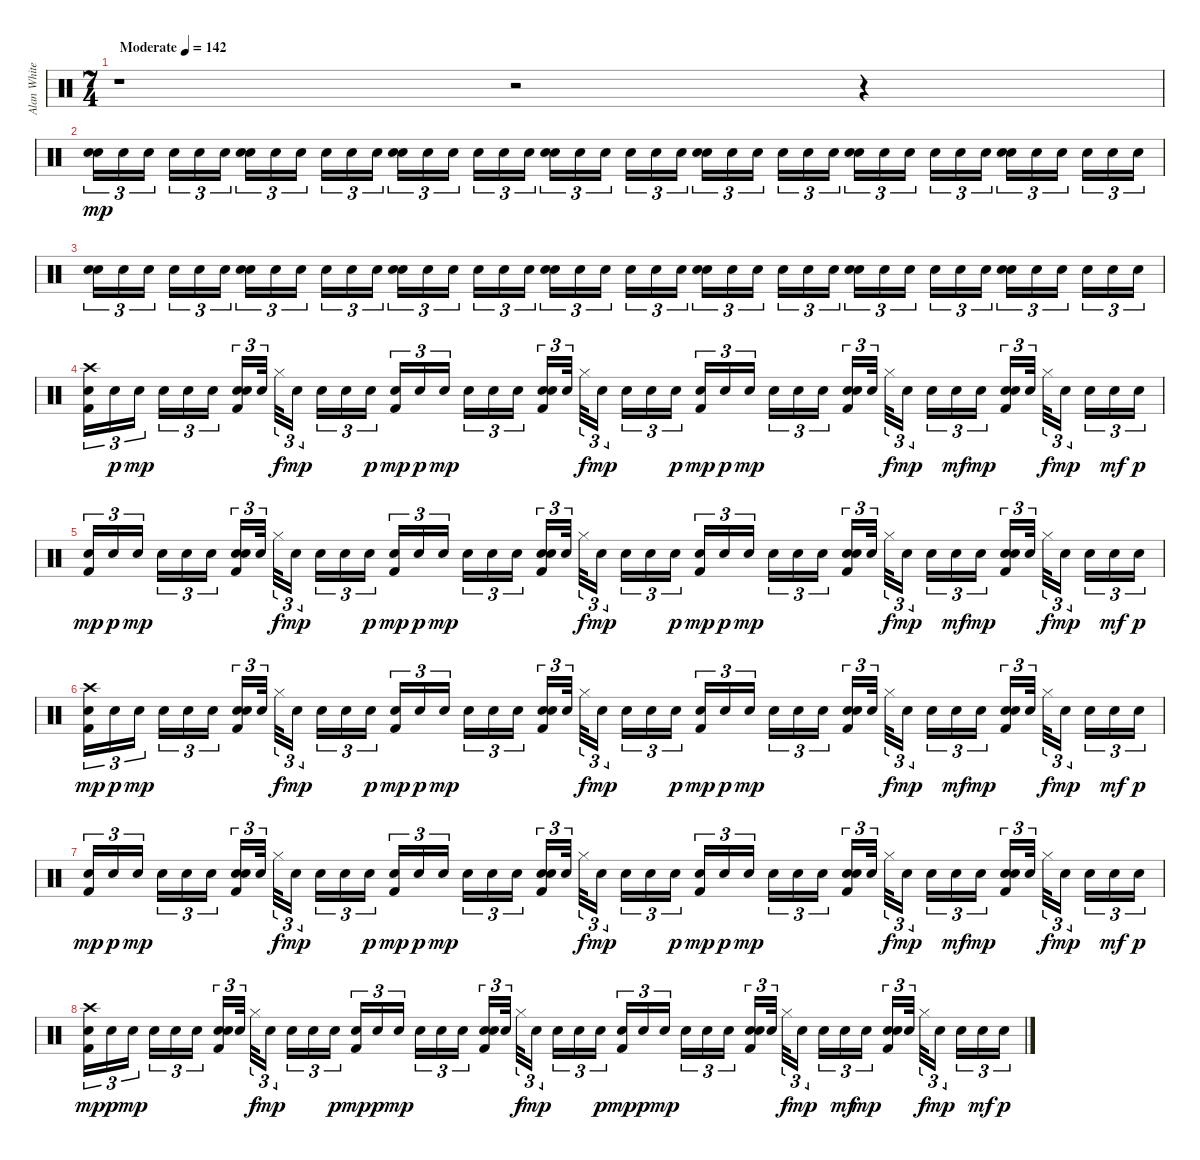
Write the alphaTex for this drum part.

\track ("Alan White" "Alan White") {instrument percussion}
\staff {score}
\articulation defaults
\ts (7 4)
\tempo (142 "Moderate")
\clef neutral
\ks c
r.1{dy mp} r.2 r.4 |
("Snare (hit) 2" "Electric Snare (hit)").16{tu (3 2)} "Electric Snare (hit)".16{tu (3 2)} "Electric Snare (hit)".16{tu (3 2) beam splitsecondary} "Electric Snare (hit)".16{tu (3 2)} "Electric Snare (hit)".16{tu (3 2)} "Electric Snare (hit)".16{tu (3 2)} ("Snare (hit) 2" "Electric Snare (hit)").16{tu (3 2)} "Electric Snare (hit)".16{tu (3 2)} "Electric Snare (hit)".16{tu (3 2) beam splitsecondary} "Electric Snare (hit)".16{tu (3 2)} "Electric Snare (hit)".16{tu (3 2)} "Electric Snare (hit)".16{tu (3 2)} ("Snare (hit) 2" "Electric Snare (hit)").16{tu (3 2)} "Electric Snare (hit)".16{tu (3 2)} "Electric Snare (hit)".16{tu (3 2) beam splitsecondary} "Electric Snare (hit)".16{tu (3 2)} "Electric Snare (hit)".16{tu (3 2)} "Electric Snare (hit)".16{tu (3 2)} ("Snare (hit) 2" "Electric Snare (hit)").16{tu (3 2)} "Electric Snare (hit)".16{tu (3 2)} "Electric Snare (hit)".16{tu (3 2) beam splitsecondary} "Electric Snare (hit)".16{tu (3 2)} "Electric Snare (hit)".16{tu (3 2)} "Electric Snare (hit)".16{tu (3 2)} ("Snare (hit) 2" "Electric Snare (hit)").16{tu (3 2)} "Electric Snare (hit)".16{tu (3 2)} "Electric Snare (hit)".16{tu (3 2) beam splitsecondary} "Electric Snare (hit)".16{tu (3 2)} "Electric Snare (hit)".16{tu (3 2)} "Electric Snare (hit)".16{tu (3 2)} ("Snare (hit) 2" "Electric Snare (hit)").16{tu (3 2)} "Electric Snare (hit)".16{tu (3 2)} "Electric Snare (hit)".16{tu (3 2) beam splitsecondary} "Electric Snare (hit)".16{tu (3 2)} "Electric Snare (hit)".16{tu (3 2)} "Electric Snare (hit)".16{tu (3 2)} ("Snare (hit) 2" "Electric Snare (hit)").16{tu (3 2)} "Electric Snare (hit)".16{tu (3 2)} "Electric Snare (hit)".16{tu (3 2) beam splitsecondary} "Electric Snare (hit)".16{tu (3 2)} "Electric Snare (hit)".16{tu (3 2)} "Electric Snare (hit)".16{tu (3 2)} |
("Snare (hit) 2" "Electric Snare (hit)").16{tu (3 2)} "Electric Snare (hit)".16{tu (3 2)} "Electric Snare (hit)".16{tu (3 2) beam splitsecondary} "Electric Snare (hit)".16{tu (3 2)} "Electric Snare (hit)".16{tu (3 2)} "Electric Snare (hit)".16{tu (3 2)} ("Snare (hit) 2" "Electric Snare (hit)").16{tu (3 2)} "Electric Snare (hit)".16{tu (3 2)} "Electric Snare (hit)".16{tu (3 2) beam splitsecondary} "Electric Snare (hit)".16{tu (3 2)} "Electric Snare (hit)".16{tu (3 2)} "Electric Snare (hit)".16{tu (3 2)} ("Snare (hit) 2" "Electric Snare (hit)").16{tu (3 2)} "Electric Snare (hit)".16{tu (3 2)} "Electric Snare (hit)".16{tu (3 2) beam splitsecondary} "Electric Snare (hit)".16{tu (3 2)} "Electric Snare (hit)".16{tu (3 2)} "Electric Snare (hit)".16{tu (3 2)} ("Snare (hit) 2" "Electric Snare (hit)").16{tu (3 2)} "Electric Snare (hit)".16{tu (3 2)} "Electric Snare (hit)".16{tu (3 2) beam splitsecondary} "Electric Snare (hit)".16{tu (3 2)} "Electric Snare (hit)".16{tu (3 2)} "Electric Snare (hit)".16{tu (3 2)} ("Snare (hit) 2" "Electric Snare (hit)").16{tu (3 2)} "Electric Snare (hit)".16{tu (3 2)} "Electric Snare (hit)".16{tu (3 2) beam splitsecondary} "Electric Snare (hit)".16{tu (3 2)} "Electric Snare (hit)".16{tu (3 2)} "Electric Snare (hit)".16{tu (3 2)} ("Snare (hit) 2" "Electric Snare (hit)").16{tu (3 2)} "Electric Snare (hit)".16{tu (3 2)} "Electric Snare (hit)".16{tu (3 2) beam splitsecondary} "Electric Snare (hit)".16{tu (3 2)} "Electric Snare (hit)".16{tu (3 2)} "Electric Snare (hit)".16{tu (3 2)} ("Snare (hit) 2" "Electric Snare (hit)").16{tu (3 2)} "Electric Snare (hit)".16{tu (3 2)} "Electric Snare (hit)".16{tu (3 2) beam splitsecondary} "Electric Snare (hit)".16{tu (3 2)} "Electric Snare (hit)".16{tu (3 2)} "Electric Snare (hit)".16{tu (3 2)} |
("Kick (hit) 2" "Electric Snare (hit)" "Crash high (hit)").16{tu (3 2)} "Electric Snare (hit)".16{tu (3 2) dy p} "Electric Snare (hit)".16{tu (3 2) dy mp beam splitsecondary} "Electric Snare (hit)".16{tu (3 2)} "Electric Snare (hit)".16{tu (3 2)} "Electric Snare (hit)".16{tu (3 2)} ("Snare (hit) 2" "Kick (hit) 2" "Electric Snare (hit)").16{tu (3 2)} "Electric Snare (hit)".32{tu (3 2) beam splitsecondary} "Hi-Hat (closed)".32{tu (3 2) dy f} "Electric Snare (hit)".16{tu (3 2) dy mp beam splitsecondary} "Electric Snare (hit)".16{tu (3 2)} "Electric Snare (hit)".16{tu (3 2)} "Electric Snare (hit)".16{tu (3 2) dy p} ("Kick (hit) 2" "Electric Snare (hit)").16{tu (3 2) dy mp} "Electric Snare (hit)".16{tu (3 2) dy p} "Electric Snare (hit)".16{tu (3 2) dy mp beam splitsecondary} "Electric Snare (hit)".16{tu (3 2)} "Electric Snare (hit)".16{tu (3 2)} "Electric Snare (hit)".16{tu (3 2)} ("Snare (hit) 2" "Kick (hit) 2" "Electric Snare (hit)").16{tu (3 2)} "Electric Snare (hit)".32{tu (3 2) beam splitsecondary} "Hi-Hat (closed)".32{tu (3 2) dy f} "Electric Snare (hit)".16{tu (3 2) dy mp beam splitsecondary} "Electric Snare (hit)".16{tu (3 2)} "Electric Snare (hit)".16{tu (3 2)} "Electric Snare (hit)".16{tu (3 2) dy p} ("Kick (hit) 2" "Electric Snare (hit)").16{tu (3 2) dy mp} "Electric Snare (hit)".16{tu (3 2) dy p} "Electric Snare (hit)".16{tu (3 2) dy mp beam splitsecondary} "Electric Snare (hit)".16{tu (3 2)} "Electric Snare (hit)".16{tu (3 2)} "Electric Snare (hit)".16{tu (3 2)} ("Snare (hit) 2" "Kick (hit) 2" "Electric Snare (hit)").16{tu (3 2)} "Electric Snare (hit)".32{tu (3 2) beam splitsecondary} "Hi-Hat (closed)".32{tu (3 2) dy f} "Electric Snare (hit)".16{tu (3 2) dy mp beam splitsecondary} "Electric Snare (hit)".16{tu (3 2)} "Electric Snare (hit)".16{tu (3 2) dy mf} "Electric Snare (hit)".16{tu (3 2) dy mp} ("Snare (hit) 2" "Kick (hit) 2" "Electric Snare (hit)").16{tu (3 2)} "Electric Snare (hit)".32{tu (3 2) beam splitsecondary} "Hi-Hat (closed)".32{tu (3 2) dy f} "Electric Snare (hit)".16{tu (3 2) dy mp beam splitsecondary} "Electric Snare (hit)".16{tu (3 2)} "Electric Snare (hit)".16{tu (3 2) dy mf} "Electric Snare (hit)".16{tu (3 2) dy p} |
("Electric Snare (hit)" "Kick (hit) 2").16{tu (3 2) dy mp} "Electric Snare (hit)".16{tu (3 2) dy p} "Electric Snare (hit)".16{tu (3 2) dy mp beam splitsecondary} "Electric Snare (hit)".16{tu (3 2)} "Electric Snare (hit)".16{tu (3 2)} "Electric Snare (hit)".16{tu (3 2)} ("Kick (hit) 2" "Electric Snare (hit)" "Snare (hit) 2").16{tu (3 2)} "Electric Snare (hit)".32{tu (3 2) beam splitsecondary} "Hi-Hat (closed)".32{tu (3 2) dy f} "Electric Snare (hit)".16{tu (3 2) dy mp beam splitsecondary} "Electric Snare (hit)".16{tu (3 2)} "Electric Snare (hit)".16{tu (3 2)} "Electric Snare (hit)".16{tu (3 2) dy p} ("Kick (hit) 2" "Electric Snare (hit)").16{tu (3 2) dy mp} "Electric Snare (hit)".16{tu (3 2) dy p} "Electric Snare (hit)".16{tu (3 2) dy mp beam splitsecondary} "Electric Snare (hit)".16{tu (3 2)} "Electric Snare (hit)".16{tu (3 2)} "Electric Snare (hit)".16{tu (3 2)} ("Kick (hit) 2" "Snare (hit) 2" "Electric Snare (hit)").16{tu (3 2)} "Electric Snare (hit)".32{tu (3 2) beam splitsecondary} "Hi-Hat (closed)".32{tu (3 2) dy f} "Electric Snare (hit)".16{tu (3 2) dy mp beam splitsecondary} "Electric Snare (hit)".16{tu (3 2)} "Electric Snare (hit)".16{tu (3 2)} "Electric Snare (hit)".16{tu (3 2) dy p} ("Kick (hit) 2" "Electric Snare (hit)").16{tu (3 2) dy mp} "Electric Snare (hit)".16{tu (3 2) dy p} "Electric Snare (hit)".16{tu (3 2) dy mp beam splitsecondary} "Electric Snare (hit)".16{tu (3 2)} "Electric Snare (hit)".16{tu (3 2)} "Electric Snare (hit)".16{tu (3 2)} ("Electric Snare (hit)" "Kick (hit) 2" "Snare (hit) 2").16{tu (3 2)} "Electric Snare (hit)".32{tu (3 2) beam splitsecondary} "Hi-Hat (closed)".32{tu (3 2) dy f} "Electric Snare (hit)".16{tu (3 2) dy mp beam splitsecondary} "Electric Snare (hit)".16{tu (3 2)} "Electric Snare (hit)".16{tu (3 2) dy mf} "Electric Snare (hit)".16{tu (3 2) dy mp} ("Kick (hit) 2" "Snare (hit) 2" "Electric Snare (hit)").16{tu (3 2)} "Electric Snare (hit)".32{tu (3 2) beam splitsecondary} "Hi-Hat (closed)".32{tu (3 2) dy f} "Electric Snare (hit)".16{tu (3 2) dy mp beam splitsecondary} "Electric Snare (hit)".16{tu (3 2)} "Electric Snare (hit)".16{tu (3 2) dy mf} "Electric Snare (hit)".16{tu (3 2) dy p} |
("Crash high (hit)" "Kick (hit) 2" "Electric Snare (hit)").16{tu (3 2) dy mp} "Electric Snare (hit)".16{tu (3 2) dy p} "Electric Snare (hit)".16{tu (3 2) dy mp beam splitsecondary} "Electric Snare (hit)".16{tu (3 2)} "Electric Snare (hit)".16{tu (3 2)} "Electric Snare (hit)".16{tu (3 2)} ("Kick (hit) 2" "Electric Snare (hit)" "Snare (hit) 2").16{tu (3 2)} "Electric Snare (hit)".32{tu (3 2) beam splitsecondary} "Hi-Hat (closed)".32{tu (3 2) dy f} "Electric Snare (hit)".16{tu (3 2) dy mp beam splitsecondary} "Electric Snare (hit)".16{tu (3 2)} "Electric Snare (hit)".16{tu (3 2)} "Electric Snare (hit)".16{tu (3 2) dy p} ("Electric Snare (hit)" "Kick (hit) 2").16{tu (3 2) dy mp} "Electric Snare (hit)".16{tu (3 2) dy p} "Electric Snare (hit)".16{tu (3 2) dy mp beam splitsecondary} "Electric Snare (hit)".16{tu (3 2)} "Electric Snare (hit)".16{tu (3 2)} "Electric Snare (hit)".16{tu (3 2)} ("Electric Snare (hit)" "Kick (hit) 2" "Snare (hit) 2").16{tu (3 2)} "Electric Snare (hit)".32{tu (3 2) beam splitsecondary} "Hi-Hat (closed)".32{tu (3 2) dy f} "Electric Snare (hit)".16{tu (3 2) dy mp beam splitsecondary} "Electric Snare (hit)".16{tu (3 2)} "Electric Snare (hit)".16{tu (3 2)} "Electric Snare (hit)".16{tu (3 2) dy p} ("Electric Snare (hit)" "Kick (hit) 2").16{tu (3 2) dy mp} "Electric Snare (hit)".16{tu (3 2) dy p} "Electric Snare (hit)".16{tu (3 2) dy mp beam splitsecondary} "Electric Snare (hit)".16{tu (3 2)} "Electric Snare (hit)".16{tu (3 2)} "Electric Snare (hit)".16{tu (3 2)} ("Kick (hit) 2" "Electric Snare (hit)" "Snare (hit) 2").16{tu (3 2)} "Electric Snare (hit)".32{tu (3 2) beam splitsecondary} "Hi-Hat (closed)".32{tu (3 2) dy f} "Electric Snare (hit)".16{tu (3 2) dy mp beam splitsecondary} "Electric Snare (hit)".16{tu (3 2)} "Electric Snare (hit)".16{tu (3 2) dy mf} "Electric Snare (hit)".16{tu (3 2) dy mp} ("Electric Snare (hit)" "Kick (hit) 2" "Snare (hit) 2").16{tu (3 2)} "Electric Snare (hit)".32{tu (3 2) beam splitsecondary} "Hi-Hat (closed)".32{tu (3 2) dy f} "Electric Snare (hit)".16{tu (3 2) dy mp beam splitsecondary} "Electric Snare (hit)".16{tu (3 2)} "Electric Snare (hit)".16{tu (3 2) dy mf} "Electric Snare (hit)".16{tu (3 2) dy p} |
("Electric Snare (hit)" "Kick (hit) 2").16{tu (3 2) dy mp} "Electric Snare (hit)".16{tu (3 2) dy p} "Electric Snare (hit)".16{tu (3 2) dy mp beam splitsecondary} "Electric Snare (hit)".16{tu (3 2)} "Electric Snare (hit)".16{tu (3 2)} "Electric Snare (hit)".16{tu (3 2)} ("Electric Snare (hit)" "Kick (hit) 2" "Snare (hit) 2").16{tu (3 2)} "Electric Snare (hit)".32{tu (3 2) beam splitsecondary} "Hi-Hat (closed)".32{tu (3 2) dy f} "Electric Snare (hit)".16{tu (3 2) dy mp beam splitsecondary} "Electric Snare (hit)".16{tu (3 2)} "Electric Snare (hit)".16{tu (3 2)} "Electric Snare (hit)".16{tu (3 2) dy p} ("Electric Snare (hit)" "Kick (hit) 2").16{tu (3 2) dy mp} "Electric Snare (hit)".16{tu (3 2) dy p} "Electric Snare (hit)".16{tu (3 2) dy mp beam splitsecondary} "Electric Snare (hit)".16{tu (3 2)} "Electric Snare (hit)".16{tu (3 2)} "Electric Snare (hit)".16{tu (3 2)} ("Electric Snare (hit)" "Kick (hit) 2" "Snare (hit) 2").16{tu (3 2)} "Electric Snare (hit)".32{tu (3 2) beam splitsecondary} "Hi-Hat (closed)".32{tu (3 2) dy f} "Electric Snare (hit)".16{tu (3 2) dy mp beam splitsecondary} "Electric Snare (hit)".16{tu (3 2)} "Electric Snare (hit)".16{tu (3 2)} "Electric Snare (hit)".16{tu (3 2) dy p} ("Electric Snare (hit)" "Kick (hit) 2").16{tu (3 2) dy mp} "Electric Snare (hit)".16{tu (3 2) dy p} "Electric Snare (hit)".16{tu (3 2) dy mp beam splitsecondary} "Electric Snare (hit)".16{tu (3 2)} "Electric Snare (hit)".16{tu (3 2)} "Electric Snare (hit)".16{tu (3 2)} ("Kick (hit) 2" "Electric Snare (hit)" "Snare (hit) 2").16{tu (3 2)} "Electric Snare (hit)".32{tu (3 2) beam splitsecondary} "Hi-Hat (closed)".32{tu (3 2) dy f} "Electric Snare (hit)".16{tu (3 2) dy mp beam splitsecondary} "Electric Snare (hit)".16{tu (3 2)} "Electric Snare (hit)".16{tu (3 2) dy mf} "Electric Snare (hit)".16{tu (3 2) dy mp} ("Kick (hit) 2" "Electric Snare (hit)" "Snare (hit) 2").16{tu (3 2)} "Electric Snare (hit)".32{tu (3 2) beam splitsecondary} "Hi-Hat (closed)".32{tu (3 2) dy f} "Electric Snare (hit)".16{tu (3 2) dy mp beam splitsecondary} "Electric Snare (hit)".16{tu (3 2)} "Electric Snare (hit)".16{tu (3 2) dy mf} "Electric Snare (hit)".16{tu (3 2) dy p} |
("Kick (hit) 2" "Crash high (hit)" "Electric Snare (hit)").16{tu (3 2) dy mp} "Electric Snare (hit)".16{tu (3 2) dy p} "Electric Snare (hit)".16{tu (3 2) dy mp beam splitsecondary} "Electric Snare (hit)".16{tu (3 2)} "Electric Snare (hit)".16{tu (3 2)} "Electric Snare (hit)".16{tu (3 2)} ("Electric Snare (hit)" "Kick (hit) 2" "Snare (hit) 2").16{tu (3 2)} "Electric Snare (hit)".32{tu (3 2) beam splitsecondary} "Hi-Hat (closed)".32{tu (3 2) dy f} "Electric Snare (hit)".16{tu (3 2) dy mp beam splitsecondary} "Electric Snare (hit)".16{tu (3 2)} "Electric Snare (hit)".16{tu (3 2)} "Electric Snare (hit)".16{tu (3 2) dy p} ("Electric Snare (hit)" "Kick (hit) 2").16{tu (3 2) dy mp} "Electric Snare (hit)".16{tu (3 2) dy p} "Electric Snare (hit)".16{tu (3 2) dy mp beam splitsecondary} "Electric Snare (hit)".16{tu (3 2)} "Electric Snare (hit)".16{tu (3 2)} "Electric Snare (hit)".16{tu (3 2)} ("Electric Snare (hit)" "Kick (hit) 2" "Snare (hit) 2").16{tu (3 2)} "Electric Snare (hit)".32{tu (3 2) beam splitsecondary} "Hi-Hat (closed)".32{tu (3 2) dy f} "Electric Snare (hit)".16{tu (3 2) dy mp beam splitsecondary} "Electric Snare (hit)".16{tu (3 2)} "Electric Snare (hit)".16{tu (3 2)} "Electric Snare (hit)".16{tu (3 2) dy p} ("Electric Snare (hit)" "Kick (hit) 2").16{tu (3 2) dy mp} "Electric Snare (hit)".16{tu (3 2) dy p} "Electric Snare (hit)".16{tu (3 2) dy mp beam splitsecondary} "Electric Snare (hit)".16{tu (3 2)} "Electric Snare (hit)".16{tu (3 2)} "Electric Snare (hit)".16{tu (3 2)} ("Electric Snare (hit)" "Kick (hit) 2" "Snare (hit) 2").16{tu (3 2)} "Electric Snare (hit)".32{tu (3 2) beam splitsecondary} "Hi-Hat (closed)".32{tu (3 2) dy f} "Electric Snare (hit)".16{tu (3 2) dy mp beam splitsecondary} "Electric Snare (hit)".16{tu (3 2)} "Electric Snare (hit)".16{tu (3 2) dy mf} "Electric Snare (hit)".16{tu (3 2) dy mp} ("Electric Snare (hit)" "Kick (hit) 2" "Snare (hit) 2").16{tu (3 2)} "Electric Snare (hit)".32{tu (3 2) beam splitsecondary} "Hi-Hat (closed)".32{tu (3 2) dy f} "Electric Snare (hit)".16{tu (3 2) dy mp beam splitsecondary} "Electric Snare (hit)".16{tu (3 2)} "Electric Snare (hit)".16{tu (3 2) dy mf} "Electric Snare (hit)".16{tu (3 2) dy p}
